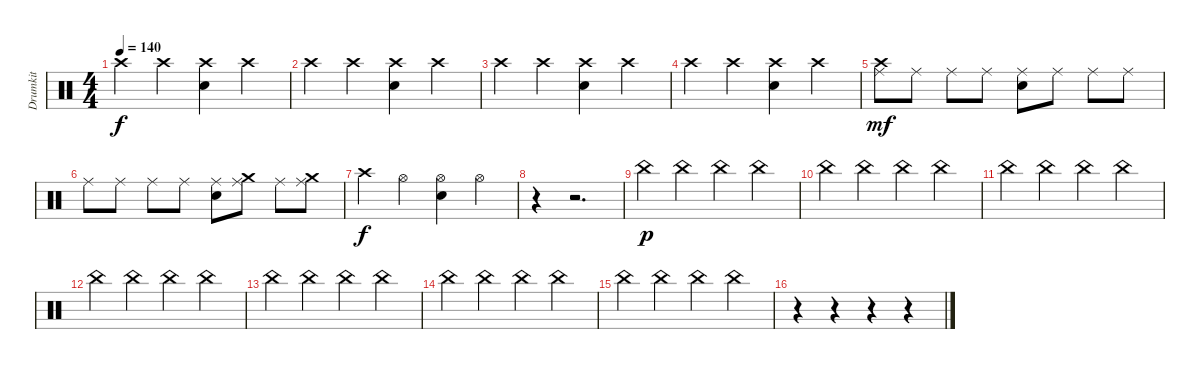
\track ("Drumkit" "Drumkit") {instrument percussion}
\staff {score}
\articulation defaults
\ts (4 4)
\tempo 140
\clef neutral
\ks c "Crash high (hit)".4{dy f} "Crash high (hit)".4
("Crash high (hit)" "Snare (hit) 2").4 "Crash high (hit)".4 |
"Crash high (hit)".4 "Crash high (hit)".4 ("Crash high (hit)" "Snare (hit) 2").4 "Crash high (hit)".4 |
"Crash high (hit)".4 "Crash high (hit)".4 ("Crash high (hit)" "Snare (hit) 2").4 "Crash high (hit)".4 |
"Crash high (hit)".4 "Crash high (hit)".4 ("Crash high (hit)" "Snare (hit) 2").4 "Crash high (hit)".4 |
("Ride (middle)" "Crash high (hit)").8{dy mf} "Ride (middle)".8 "Ride (middle)".8 "Ride (middle)".8 ("Ride (middle)" "Snare (hit) 2").8 "Ride (middle)".8 "Ride (middle)".8 "Ride (middle)".8 |
"Ride (middle)".8 "Ride (middle)".8 "Ride (middle)".8 "Ride (middle)".8 ("Ride (middle)" "Snare (hit) 2").8 ("Ride (middle)" "Crash medium (hit)").8 "Ride (middle)".8 ("Ride (middle)" "Crash medium (hit)").8 |
"Crash high (hit)".4{dy f} "Hi-Hat (open)".4 ("Hi-Hat (open)" "Snare (hit) 2").4 "Hi-Hat (open)".4 |
r.4 r.2{d} |
"China (hit)".4{dy p} "China (hit)".4 "China (hit)".4 "China (hit)".4 |
"China (hit)".4 "China (hit)".4 "China (hit)".4 "China (hit)".4 |
"China (hit)".4 "China (hit)".4 "China (hit)".4 "China (hit)".4 |
"China (hit)".4 "China (hit)".4 "China (hit)".4 "China (hit)".4 |
"China (hit)".4 "China (hit)".4 "China (hit)".4 "China (hit)".4 |
"China (hit)".4 "China (hit)".4 "China (hit)".4 "China (hit)".4 |
"China (hit)".4 "China (hit)".4 "China (hit)".4 "China (hit)".4 |
r.4 r.4 r.4 r.4
